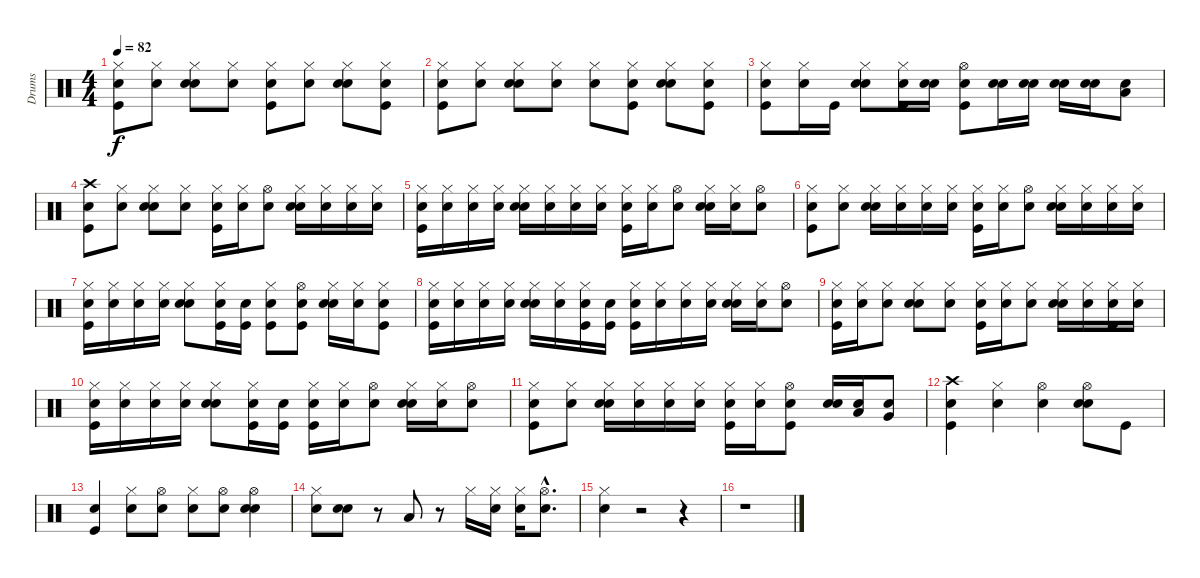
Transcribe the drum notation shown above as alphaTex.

\track ("Drums" "Drums") {instrument percussion}
\staff {score}
\articulation defaults
\ts (4 4)
\tempo 82
\clef neutral
\ks c
("Snare (hit)" "Kick (hit)" "Hi-Hat (closed)").8{dy f} ("Snare (hit)" "Hi-Hat (closed)").8 ("Snare (hit)" "Electric Snare (hit)" "Hi-Hat (closed)").8 ("Snare (hit)" "Hi-Hat (closed)").8 ("Snare (hit)" "Kick (hit)" "Hi-Hat (closed)").8 ("Snare (hit)" "Hi-Hat (closed)").8 ("Snare (hit)" "Electric Snare (hit)" "Hi-Hat (closed)").8 ("Snare (hit)" "Kick (hit)" "Hi-Hat (closed)").8 |
("Snare (hit)" "Kick (hit)" "Hi-Hat (closed)").8 ("Snare (hit)" "Hi-Hat (closed)").8 ("Snare (hit)" "Electric Snare (hit)" "Hi-Hat (closed)").8 ("Snare (hit)" "Hi-Hat (closed)").8 ("Snare (hit)" "Hi-Hat (closed)").8 ("Snare (hit)" "Kick (hit)" "Hi-Hat (closed)").8 ("Snare (hit)" "Electric Snare (hit)" "Hi-Hat (closed)").8 ("Snare (hit)" "Kick (hit)" "Hi-Hat (closed)").8 |
("Snare (hit)" "Kick (hit)" "Hi-Hat (closed)").8 ("Snare (hit)" "Hi-Hat (closed)").16 "Kick (hit)".16 ("Snare (hit)" "Electric Snare (hit)" "Hi-Hat (closed)").8 ("Snare (hit)" "Kick (hit)" "Hi-Hat (closed)").16 ("Snare (hit)" "Electric Snare (hit)").16 ("Snare (hit)" "Kick (hit)" "Hi-Hat (open)").8 ("Snare (hit)" "Electric Snare (hit)").16 ("Snare (hit)" "Electric Snare (hit)").16 ("Snare (hit)" "Electric Snare (hit)").16 ("Snare (hit)" "Electric Snare (hit)").16 ("Snare (hit)" "Low Tom (hit)").8 |
("Snare (hit)" "Kick (hit)" "Crash high (hit)").8 ("Snare (hit)" "Hi-Hat (closed)").8 ("Snare (hit)" "Electric Snare (hit)" "Hi-Hat (closed)").8 ("Snare (hit)" "Hi-Hat (closed)").8 ("Snare (hit)" "Kick (hit)" "Hi-Hat (closed)").16 ("Snare (hit)" "Hi-Hat (closed)").16 ("Snare (hit)" "Hi-Hat (open)").8 ("Snare (hit)" "Electric Snare (hit)" "Hi-Hat (closed)").16 ("Snare (hit)" "Hi-Hat (closed)").16 ("Snare (hit)" "Hi-Hat (closed)").16 ("Snare (hit)" "Hi-Hat (closed)").16 |
("Snare (hit)" "Kick (hit)" "Hi-Hat (closed)").16 ("Snare (hit)" "Hi-Hat (closed)").16 ("Snare (hit)" "Hi-Hat (closed)").16 ("Snare (hit)" "Hi-Hat (closed)").16 ("Snare (hit)" "Electric Snare (hit)" "Hi-Hat (closed)").16 ("Snare (hit)" "Hi-Hat (closed)").16 ("Snare (hit)" "Hi-Hat (closed)").16 ("Snare (hit)" "Hi-Hat (closed)").16 ("Snare (hit)" "Kick (hit)" "Hi-Hat (closed)").16 ("Snare (hit)" "Hi-Hat (closed)").16 ("Snare (hit)" "Hi-Hat (open)").8 ("Snare (hit)" "Electric Snare (hit)" "Hi-Hat (closed)").16 ("Snare (hit)" "Hi-Hat (closed)").16 ("Snare (hit)" "Hi-Hat (open)").8 |
("Snare (hit)" "Kick (hit)" "Hi-Hat (closed)").8 ("Snare (hit)" "Hi-Hat (closed)").8 ("Snare (hit)" "Electric Snare (hit)" "Hi-Hat (closed)").16 ("Snare (hit)" "Hi-Hat (closed)").16 ("Snare (hit)" "Hi-Hat (closed)").16 ("Snare (hit)" "Hi-Hat (closed)").16 ("Snare (hit)" "Kick (hit)" "Hi-Hat (closed)").16 ("Snare (hit)" "Hi-Hat (closed)").16 ("Snare (hit)" "Hi-Hat (open)").8 ("Snare (hit)" "Electric Snare (hit)" "Hi-Hat (closed)").16 ("Snare (hit)" "Hi-Hat (closed)").16 ("Snare (hit)" "Hi-Hat (closed)").16 ("Snare (hit)" "Hi-Hat (closed)").16 |
("Snare (hit)" "Kick (hit)" "Hi-Hat (closed)").16 ("Snare (hit)" "Hi-Hat (closed)").16 ("Snare (hit)" "Hi-Hat (closed)").16 ("Snare (hit)" "Hi-Hat (closed)").16 ("Snare (hit)" "Electric Snare (hit)" "Hi-Hat (closed)").8 ("Snare (hit)" "Kick (hit)" "Hi-Hat (closed)").16 ("Snare (hit)" "Kick (hit)").16 ("Snare (hit)" "Kick (hit)" "Hi-Hat (closed)").8 ("Snare (hit)" "Kick (hit)" "Hi-Hat (open)").8 ("Snare (hit)" "Electric Snare (hit)" "Hi-Hat (closed)").16 ("Snare (hit)" "Hi-Hat (closed)").16 ("Snare (hit)" "Kick (hit)" "Hi-Hat (closed)").8 |
("Snare (hit)" "Kick (hit)" "Hi-Hat (closed)").16 ("Snare (hit)" "Hi-Hat (closed)").16 ("Snare (hit)" "Hi-Hat (closed)").16 ("Snare (hit)" "Hi-Hat (closed)").16 ("Snare (hit)" "Electric Snare (hit)" "Hi-Hat (closed)").16 ("Snare (hit)" "Hi-Hat (closed)").16 ("Snare (hit)" "Kick (hit)" "Hi-Hat (closed)").16 ("Snare (hit)" "Kick (hit)").16 ("Snare (hit)" "Kick (hit)" "Hi-Hat (closed)").16 ("Snare (hit)" "Hi-Hat (closed)").16 ("Snare (hit)" "Hi-Hat (closed)").16 ("Snare (hit)" "Hi-Hat (closed)").16 ("Snare (hit)" "Electric Snare (hit)" "Hi-Hat (closed)").16 ("Snare (hit)" "Hi-Hat (closed)").16 ("Snare (hit)" "Hi-Hat (open)").8 |
("Snare (hit)" "Kick (hit)" "Hi-Hat (closed)").16 ("Snare (hit)" "Hi-Hat (closed)").16 ("Snare (hit)" "Hi-Hat (closed)").8 ("Snare (hit)" "Electric Snare (hit)" "Hi-Hat (closed)").8 ("Snare (hit)" "Hi-Hat (closed)").8 ("Snare (hit)" "Kick (hit)" "Hi-Hat (closed)").16 ("Snare (hit)" "Hi-Hat (closed)").16 ("Snare (hit)" "Hi-Hat (closed)").8 ("Snare (hit)" "Electric Snare (hit)" "Hi-Hat (closed)").16 ("Snare (hit)" "Hi-Hat (closed)").16 ("Snare (hit)" "Kick (hit)" "Hi-Hat (closed)").16 ("Snare (hit)" "Hi-Hat (closed)").16 |
("Snare (hit)" "Kick (hit)" "Hi-Hat (closed)").16 ("Snare (hit)" "Hi-Hat (closed)").16 ("Snare (hit)" "Hi-Hat (closed)").16 ("Snare (hit)" "Hi-Hat (closed)").16 ("Snare (hit)" "Electric Snare (hit)" "Hi-Hat (closed)").8 ("Snare (hit)" "Kick (hit)" "Hi-Hat (closed)").16 ("Snare (hit)" "Kick (hit)").16 ("Snare (hit)" "Kick (hit)" "Hi-Hat (closed)").16 ("Snare (hit)" "Hi-Hat (closed)").16 ("Snare (hit)" "Hi-Hat (open)").8 ("Snare (hit)" "Electric Snare (hit)" "Hi-Hat (closed)").16 ("Snare (hit)" "Hi-Hat (closed)").16 ("Snare (hit)" "Hi-Hat (open)").8 |
("Snare (hit)" "Kick (hit)" "Hi-Hat (closed)").8 ("Snare (hit)" "Hi-Hat (closed)").8 ("Snare (hit)" "Electric Snare (hit)" "Hi-Hat (closed)").16 ("Snare (hit)" "Hi-Hat (closed)").16 ("Snare (hit)" "Hi-Hat (closed)").16 ("Snare (hit)" "Hi-Hat (closed)").16 ("Snare (hit)" "Kick (hit)" "Hi-Hat (closed)").16 ("Snare (hit)" "Hi-Hat (closed)").16 ("Snare (hit)" "Kick (hit)" "Hi-Hat (open)").8 ("Snare (hit)" "Electric Snare (hit)").16 ("Snare (hit)" "Low Tom (hit)").16 ("Snare (hit)" "Very Low Tom (hit)").8 |
("Snare (hit)" "Kick (hit)" "Crash high (hit)").4 ("Snare (hit)" "Hi-Hat (closed)").4 ("Snare (hit)" "Hi-Hat (open)").4 ("Snare (hit)" "Electric Snare (hit)" "Hi-Hat (open)").8 "Kick (hit)".8 |
("Snare (hit)" "Kick (hit)").4 ("Snare (hit)" "Hi-Hat (closed)").8 ("Snare (hit)" "Hi-Hat (open)").8 ("Snare (hit)" "Hi-Hat (closed)").8 ("Snare (hit)" "Hi-Hat (open)").8 ("Snare (hit)" "Electric Snare (hit)" "Hi-Hat (open)").4 |
("Snare (hit)" "Hi-Hat (closed)").8 ("Snare (hit)" "Electric Snare (hit)").8 r.8 "Low Tom (hit)".8 r.8 "Hi-Hat (closed)".16 ("Snare (hit)" "Hi-Hat (closed)").16 ("Snare (hit)" "Hi-Hat (closed)").16 ("Snare (hit)"{hac} "Hi-Hat (open)"{hac}).8{d} |
("Snare (hit)" "Hi-Hat (closed)").4 r.2 r.4 |
r.1
